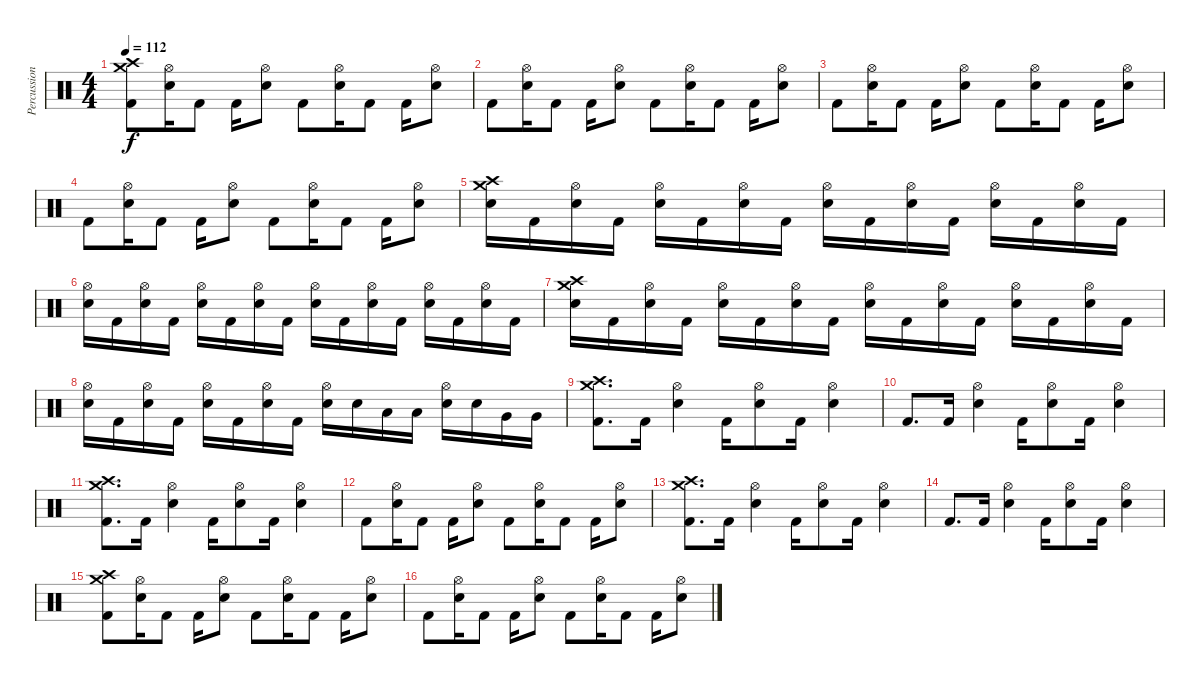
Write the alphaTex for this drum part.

\track ("Percussion" "Percussion") {instrument percussion}
\staff {score}
\articulation defaults
\ts (4 4)
\tempo 112
\clef neutral
\ks c
("Kick (hit) 2" "Crash high (hit)" "Crash medium (hit)").8{dy f} ("Electric Snare (hit)" "Hi-Hat (open)").16 "Kick (hit) 2".8 "Kick (hit) 2".16 ("Electric Snare (hit)" "Hi-Hat (open)").8 "Kick (hit) 2".8 ("Electric Snare (hit)" "Hi-Hat (open)").16 "Kick (hit) 2".8 "Kick (hit) 2".16 ("Electric Snare (hit)" "Hi-Hat (open)").8 |
"Kick (hit) 2".8 ("Electric Snare (hit)" "Hi-Hat (open)").16 "Kick (hit) 2".8 "Kick (hit) 2".16 ("Electric Snare (hit)" "Hi-Hat (open)").8 "Kick (hit) 2".8 ("Electric Snare (hit)" "Hi-Hat (open)").16 "Kick (hit) 2".8 "Kick (hit) 2".16 ("Electric Snare (hit)" "Hi-Hat (open)").8 |
"Kick (hit) 2".8 ("Electric Snare (hit)" "Hi-Hat (open)").16 "Kick (hit) 2".8 "Kick (hit) 2".16 ("Electric Snare (hit)" "Hi-Hat (open)").8 "Kick (hit) 2".8 ("Electric Snare (hit)" "Hi-Hat (open)").16 "Kick (hit) 2".8 "Kick (hit) 2".16 ("Electric Snare (hit)" "Hi-Hat (open)").8 |
"Kick (hit) 2".8 ("Electric Snare (hit)" "Hi-Hat (open)").16 "Kick (hit) 2".8 "Kick (hit) 2".16 ("Electric Snare (hit)" "Hi-Hat (open)").8 "Kick (hit) 2".8 ("Electric Snare (hit)" "Hi-Hat (open)").16 "Kick (hit) 2".8 "Kick (hit) 2".16 ("Electric Snare (hit)" "Hi-Hat (open)").8 |
("Electric Snare (hit)" "Crash high (hit)" "Crash medium (hit)").16 "Kick (hit) 2".16 ("Electric Snare (hit)" "Hi-Hat (open)").16 "Kick (hit) 2".16 ("Electric Snare (hit)" "Hi-Hat (open)").16 "Kick (hit) 2".16 ("Electric Snare (hit)" "Hi-Hat (open)").16 "Kick (hit) 2".16 ("Electric Snare (hit)" "Hi-Hat (open)").16 "Kick (hit) 2".16 ("Electric Snare (hit)" "Hi-Hat (open)").16 "Kick (hit) 2".16 ("Electric Snare (hit)" "Hi-Hat (open)").16 "Kick (hit) 2".16 ("Electric Snare (hit)" "Hi-Hat (open)").16 "Kick (hit) 2".16 |
("Electric Snare (hit)" "Hi-Hat (open)").16 "Kick (hit) 2".16 ("Electric Snare (hit)" "Hi-Hat (open)").16 "Kick (hit) 2".16 ("Electric Snare (hit)" "Hi-Hat (open)").16 "Kick (hit) 2".16 ("Electric Snare (hit)" "Hi-Hat (open)").16 "Kick (hit) 2".16 ("Electric Snare (hit)" "Hi-Hat (open)").16 "Kick (hit) 2".16 ("Electric Snare (hit)" "Hi-Hat (open)").16 "Kick (hit) 2".16 ("Electric Snare (hit)" "Hi-Hat (open)").16 "Kick (hit) 2".16 ("Electric Snare (hit)" "Hi-Hat (open)").16 "Kick (hit) 2".16 |
("Electric Snare (hit)" "Crash high (hit)" "Crash medium (hit)").16 "Kick (hit) 2".16 ("Electric Snare (hit)" "Hi-Hat (open)").16 "Kick (hit) 2".16 ("Electric Snare (hit)" "Hi-Hat (open)").16 "Kick (hit) 2".16 ("Electric Snare (hit)" "Hi-Hat (open)").16 "Kick (hit) 2".16 ("Electric Snare (hit)" "Hi-Hat (open)").16 "Kick (hit) 2".16 ("Electric Snare (hit)" "Hi-Hat (open)").16 "Kick (hit) 2".16 ("Electric Snare (hit)" "Hi-Hat (open)").16 "Kick (hit) 2".16 ("Electric Snare (hit)" "Hi-Hat (open)").16 "Kick (hit) 2".16 |
("Electric Snare (hit)" "Hi-Hat (open)").16 "Kick (hit) 2".16 ("Electric Snare (hit)" "Hi-Hat (open)").16 "Kick (hit) 2".16 ("Electric Snare (hit)" "Hi-Hat (open)").16 "Kick (hit) 2".16 ("Electric Snare (hit)" "Hi-Hat (open)").16 "Kick (hit) 2".16 ("Electric Snare (hit)" "Hi-Hat (open)").16 "Electric Snare (hit)".16 "Low Tom (hit)".16 "Low Tom (hit)".16 ("Electric Snare (hit)" "Hi-Hat (open)").16 "Electric Snare (hit)".16 "Very Low Tom (hit)".16 "Very Low Tom (hit)".16 |
("Kick (hit) 2" "Crash high (hit)" "Crash medium (hit)").8{d} "Kick (hit) 2".16 ("Electric Snare (hit)" "Hi-Hat (open)").4 "Kick (hit) 2".16 ("Electric Snare (hit)" "Hi-Hat (open)").8 "Kick (hit) 2".16 ("Electric Snare (hit)" "Hi-Hat (open)").4 |
"Kick (hit) 2".8{d} "Kick (hit) 2".16 ("Electric Snare (hit)" "Hi-Hat (open)").4 "Kick (hit) 2".16 ("Electric Snare (hit)" "Hi-Hat (open)").8 "Kick (hit) 2".16 ("Electric Snare (hit)" "Hi-Hat (open)").4 |
("Kick (hit) 2" "Crash high (hit)" "Crash medium (hit)").8{d} "Kick (hit) 2".16 ("Electric Snare (hit)" "Hi-Hat (open)").4 "Kick (hit) 2".16 ("Electric Snare (hit)" "Hi-Hat (open)").8 "Kick (hit) 2".16 ("Electric Snare (hit)" "Hi-Hat (open)").4 |
"Kick (hit) 2".8 ("Electric Snare (hit)" "Hi-Hat (open)").16 "Kick (hit) 2".8 "Kick (hit) 2".16 ("Electric Snare (hit)" "Hi-Hat (open)").8 "Kick (hit) 2".8 ("Electric Snare (hit)" "Hi-Hat (open)").16 "Kick (hit) 2".8 "Kick (hit) 2".16 ("Electric Snare (hit)" "Hi-Hat (open)").8 |
("Kick (hit) 2" "Crash high (hit)" "Crash medium (hit)").8{d} "Kick (hit) 2".16 ("Electric Snare (hit)" "Hi-Hat (open)").4 "Kick (hit) 2".16 ("Electric Snare (hit)" "Hi-Hat (open)").8 "Kick (hit) 2".16 ("Electric Snare (hit)" "Hi-Hat (open)").4 |
"Kick (hit) 2".8{d} "Kick (hit) 2".16 ("Electric Snare (hit)" "Hi-Hat (open)").4 "Kick (hit) 2".16 ("Electric Snare (hit)" "Hi-Hat (open)").8 "Kick (hit) 2".16 ("Electric Snare (hit)" "Hi-Hat (open)").4 |
("Kick (hit) 2" "Crash high (hit)" "Crash medium (hit)").8 ("Electric Snare (hit)" "Hi-Hat (open)").16 "Kick (hit) 2".8 "Kick (hit) 2".16 ("Electric Snare (hit)" "Hi-Hat (open)").8 "Kick (hit) 2".8 ("Electric Snare (hit)" "Hi-Hat (open)").16 "Kick (hit) 2".8 "Kick (hit) 2".16 ("Electric Snare (hit)" "Hi-Hat (open)").8 |
"Kick (hit) 2".8 ("Electric Snare (hit)" "Hi-Hat (open)").16 "Kick (hit) 2".8 "Kick (hit) 2".16 ("Electric Snare (hit)" "Hi-Hat (open)").8 "Kick (hit) 2".8 ("Electric Snare (hit)" "Hi-Hat (open)").16 "Kick (hit) 2".8 "Kick (hit) 2".16 ("Electric Snare (hit)" "Hi-Hat (open)").8
